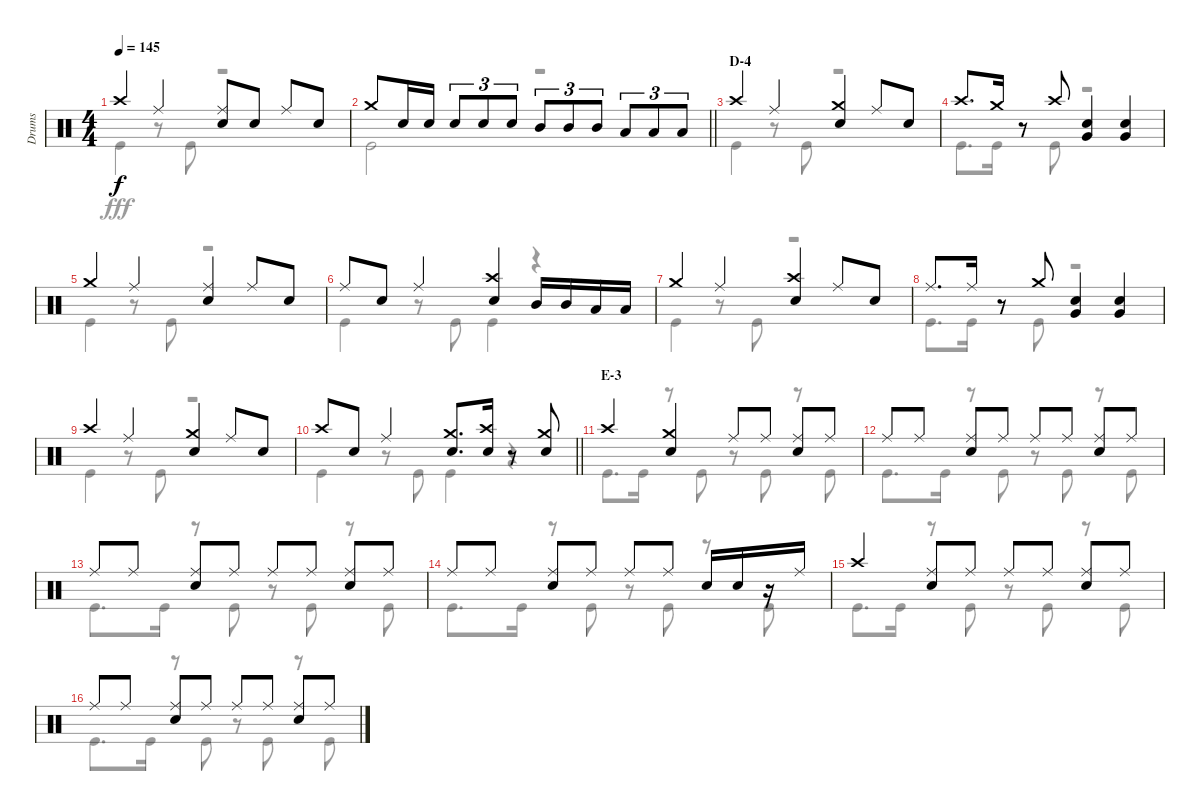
\track ("Drums" "Drums") {instrument percussion}
\staff {score}
\articulation defaults
\voice
\ts (4 4)
\tempo 145
\clef neutral
\ks c "Crash high (hit)".4{dy f} "Ride (middle)".4
("Ride (middle)" "Snare (hit) 2").8 "Snare (hit) 2".8 "Ride (middle)".8 "Snare (hit) 2".8 |
\barLineRight lightlight "Crash medium (hit)".8 "Snare (hit) 2".16 "Snare (hit) 2".16 "Snare (hit) 2".8{tu (3 2)} "Snare (hit) 2".8{tu (3 2)} "Snare (hit) 2".8{tu (3 2)} "Mid Tom (hit)".8{tu (3 2)} "Mid Tom (hit)".8{tu (3 2)} "Mid Tom (hit)".8{tu (3 2)} "Low Tom (hit)".8{tu (3 2)} "Low Tom (hit)".8{tu (3 2)} "Low Tom (hit)".8{tu (3 2)}
|
\section ("" "D-4")
"Crash high (hit)".4 "Ride (middle)".4 ("Crash medium (hit)" "Snare (hit) 2").4 "Ride (middle)".8 "Snare (hit) 2".8 |
"Crash high (hit)".8{d} "Crash medium (hit)".16 r.8 "Crash high (hit)".8 ("Snare (hit) 2" "Very Low Tom (hit)").4 ("Snare (hit) 2" "Very Low Tom (hit)").4 |
"Crash medium (hit)".4 "Ride (middle)".4 ("Ride (middle)" "Snare (hit) 2").4 "Ride (middle)".8 "Snare (hit) 2".8 |
"Ride (middle)".8 "Snare (hit) 2".8 "Ride (middle)".4 ("Crash high (hit)" "Snare (hit) 2").4 "Mid Tom (hit)".16 "Mid Tom (hit)".16 "Low Tom (hit)".16 "Low Tom (hit)".16 |
"Crash medium (hit)".4 "Ride (middle)".4 ("Crash high (hit)" "Snare (hit) 2").4 "Ride (middle)".8 "Snare (hit) 2".8 |
"Ride (middle)".8{d} "Ride (middle)".16 r.8 "Crash medium (hit)".8 ("Snare (hit) 2" "Very Low Tom (hit)").4 ("Snare (hit) 2" "Very Low Tom (hit)").4 |
"Crash high (hit)".4 "Ride (middle)".4 ("Crash medium (hit)" "Snare (hit) 2").4 "Ride (middle)".8 "Snare (hit) 2".8 |
\barLineRight lightlight "Crash high (hit)".8 "Snare (hit) 2".8 "Ride (middle)".4
("Crash medium (hit)" "Snare (hit) 2").8{d} ("Crash high (hit)" "Snare (hit) 2").16 r.8 ("Crash medium (hit)" "Snare (hit) 2").8 |
\section ("" "E-3")
"Crash high (hit)".4 ("Crash medium (hit)" "Snare (hit) 2").4 "Ride (middle)".8 "Ride (middle)".8 ("Ride (middle)" "Snare (hit) 2").8 "Ride (middle)".8 |
"Ride (middle)".8 "Ride (middle)".8 ("Ride (middle)" "Snare (hit) 2").8 "Ride (middle)".8 "Ride (middle)".8 "Ride (middle)".8 ("Ride (middle)" "Snare (hit) 2").8 "Ride (middle)".8 |
"Ride (middle)".8 "Ride (middle)".8 ("Ride (middle)" "Snare (hit) 2").8 "Ride (middle)".8 "Ride (middle)".8 "Ride (middle)".8 ("Ride (middle)" "Snare (hit) 2").8 "Ride (middle)".8 |
"Ride (middle)".8 "Ride (middle)".8 ("Ride (middle)" "Snare (hit) 2").8 "Ride (middle)".8 "Ride (middle)".8 "Ride (middle)".8 "Snare (hit) 2".16 "Snare (hit) 2".16 r.16 "Ride (middle)".16 |
"Crash high (hit)".4 ("Ride (middle)" "Snare (hit) 2").8 "Ride (middle)".8 "Ride (middle)".8 "Ride (middle)".8 ("Ride (middle)" "Snare (hit) 2").8 "Ride (middle)".8 |
"Ride (middle)".8 "Ride (middle)".8 ("Ride (middle)" "Snare (hit) 2").8 "Ride (middle)".8 "Ride (middle)".8 "Ride (middle)".8 ("Ride (middle)" "Snare (hit) 2").8 "Ride (middle)".8
\voice
\clef neutral
\ottava regular
\simile none
\ks c "Kick (hit)".4{dy fff}
r.8 "Kick (hit)".8 r.2 |
\barLineRight lightlight "Kick (hit)".2
r.2 |
"Kick (hit)".4 r.8 "Kick (hit)".8 r.2 |
"Kick (hit)".8{d} "Kick (hit)".16 r.8 "Kick (hit)".8 r.2 |
"Kick (hit)".4 r.8 "Kick (hit)".8 r.2 |
"Kick (hit)".4 r.8 "Kick (hit)".8 "Kick (hit)".4 r.4 |
"Kick (hit)".4 r.8 "Kick (hit)".8 r.2 |
"Kick (hit)".8{d} "Kick (hit)".16 r.8 "Kick (hit)".8 r.2 |
"Kick (hit)".4 r.8 "Kick (hit)".8 r.2 |
\barLineRight lightlight "Kick (hit)".4
r.8 "Kick (hit)".8 "Kick (hit)".4 r.4 |
"Kick (hit)".8{d} "Kick (hit)".16 r.8 "Kick (hit)".8 r.8 "Kick (hit)".8 r.8 "Kick (hit)".8 |
"Kick (hit)".8{d} "Kick (hit)".16 r.8 "Kick (hit)".8 r.8 "Kick (hit)".8 r.8 "Kick (hit)".8 |
"Kick (hit)".8{d} "Kick (hit)".16 r.8 "Kick (hit)".8 r.8 "Kick (hit)".8 r.8 "Kick (hit)".8 |
"Kick (hit)".8{d} "Kick (hit)".16 r.8 "Kick (hit)".8 r.8 "Kick (hit)".8 r.8 "Kick (hit)".8 |
"Kick (hit)".8{d} "Kick (hit)".16 r.8 "Kick (hit)".8 r.8 "Kick (hit)".8 r.8 "Kick (hit)".8 |
"Kick (hit)".8{d} "Kick (hit)".16 r.8 "Kick (hit)".8 r.8 "Kick (hit)".8 r.8 "Kick (hit)".8
